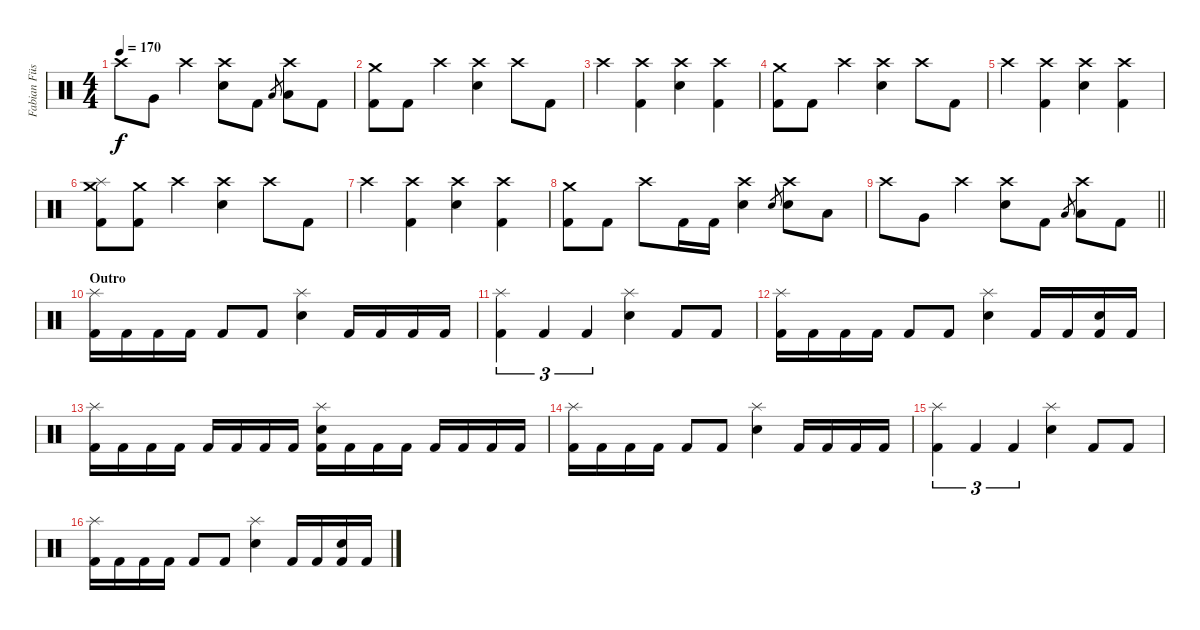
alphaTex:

\track ("Fabian Füss" "Fabian Füs") {instrument percussion}
\staff {score}
\articulation defaults
\ts (4 4)
\tempo 170
\clef neutral
\ks c "Crash high (hit)".8{dy f} "Very Low Tom (hit)".8 "Crash high (hit)".4
("Crash high (hit)" "Snare (hit) 2").8 "Kick (hit) 2".8 "Low Tom (hit)".8{gr} ("Crash high (hit)" "Low Tom (hit)").8 "Kick (hit) 2".8 |
("Crash medium (hit)" "Kick (hit) 2").8 "Kick (hit) 2".8 "Crash high (hit)".4 ("Crash high (hit)" "Snare (hit) 2").4 "Crash high (hit)".8 "Kick (hit) 2".8 |
"Crash high (hit)".4 ("Crash high (hit)" "Kick (hit) 2").4 ("Crash high (hit)" "Snare (hit) 2").4 ("Crash high (hit)" "Kick (hit) 2").4 |
("Crash medium (hit)" "Kick (hit) 2").8 "Kick (hit) 2".8 "Crash high (hit)".4 ("Crash high (hit)" "Snare (hit) 2").4 "Crash high (hit)".8 "Kick (hit) 2".8 |
"Crash high (hit)".4 ("Crash high (hit)" "Kick (hit) 2").4 ("Crash high (hit)" "Snare (hit) 2").4 ("Crash high (hit)" "Kick (hit) 2").4 |
("Crash medium (hit)" "Splash (hit)" "Kick (hit) 2").8 ("Crash medium (hit)" "Kick (hit) 2").8 "Crash high (hit)".4 ("Crash high (hit)" "Snare (hit) 2").4 "Crash high (hit)".8 "Kick (hit) 2".8 |
"Crash high (hit)".4 ("Crash high (hit)" "Kick (hit) 2").4 ("Crash high (hit)" "Snare (hit) 2").4 ("Crash high (hit)" "Kick (hit) 2").4 |
("Crash medium (hit)" "Kick (hit) 2").8 "Kick (hit) 2".8 "Crash high (hit)".8 "Kick (hit) 2".16 "Kick (hit) 2".16 ("Crash high (hit)" "Snare (hit) 2").4 "Snare (hit) 2".8{gr} ("Crash high (hit)" "Snare (hit) 2").8 "Low Tom (hit)".8 |
\barLineRight lightlight "Crash high (hit)".8 "Very Low Tom (hit)".8 "Crash high (hit)".4
("Crash high (hit)" "Snare (hit) 2").8 "Kick (hit) 2".8 "Low Tom (hit)".8{gr} ("Crash high (hit)" "Low Tom (hit)").8 "Kick (hit) 2".8 |
\section ("" "Outro")
("Splash (hit)" "Kick (hit) 2").16 "Kick (hit) 2".16 "Kick (hit) 2".16 "Kick (hit) 2".16 "Kick (hit) 2".8 "Kick (hit) 2".8 ("Splash (hit)" "Snare (hit) 2").4 "Kick (hit) 2".16 "Kick (hit) 2".16 "Kick (hit) 2".16 "Kick (hit) 2".16 |
("Splash (hit)" "Kick (hit) 2").4{tu (3 2)} "Kick (hit) 2".4{tu (3 2)} "Kick (hit) 2".4{tu (3 2)} ("Splash (hit)" "Snare (hit) 2").4 "Kick (hit) 2".8 "Kick (hit) 2".8 |
("Splash (hit)" "Kick (hit) 2").16 "Kick (hit) 2".16 "Kick (hit) 2".16 "Kick (hit) 2".16 "Kick (hit) 2".8 "Kick (hit) 2".8 ("Splash (hit)" "Snare (hit) 2").4 "Kick (hit) 2".16 "Kick (hit) 2".16 ("Snare (hit) 2" "Kick (hit) 2").16 "Kick (hit) 2".16 |
("Splash (hit)" "Kick (hit) 2").16 "Kick (hit) 2".16 "Kick (hit) 2".16 "Kick (hit) 2".16 "Kick (hit) 2".16 "Kick (hit) 2".16 "Kick (hit) 2".16 "Kick (hit) 2".16 ("Splash (hit)" "Snare (hit) 2" "Kick (hit) 2").16 "Kick (hit) 2".16 "Kick (hit) 2".16 "Kick (hit) 2".16 "Kick (hit) 2".16 "Kick (hit) 2".16 "Kick (hit) 2".16 "Kick (hit) 2".16 |
("Splash (hit)" "Kick (hit) 2").16 "Kick (hit) 2".16 "Kick (hit) 2".16 "Kick (hit) 2".16 "Kick (hit) 2".8 "Kick (hit) 2".8 ("Splash (hit)" "Snare (hit) 2").4 "Kick (hit) 2".16 "Kick (hit) 2".16 "Kick (hit) 2".16 "Kick (hit) 2".16 |
("Splash (hit)" "Kick (hit) 2").4{tu (3 2)} "Kick (hit) 2".4{tu (3 2)} "Kick (hit) 2".4{tu (3 2)} ("Splash (hit)" "Snare (hit) 2").4 "Kick (hit) 2".8 "Kick (hit) 2".8 |
("Splash (hit)" "Kick (hit) 2").16 "Kick (hit) 2".16 "Kick (hit) 2".16 "Kick (hit) 2".16 "Kick (hit) 2".8 "Kick (hit) 2".8 ("Splash (hit)" "Snare (hit) 2").4 "Kick (hit) 2".16 "Kick (hit) 2".16 ("Snare (hit) 2" "Kick (hit) 2").16 "Kick (hit) 2".16
